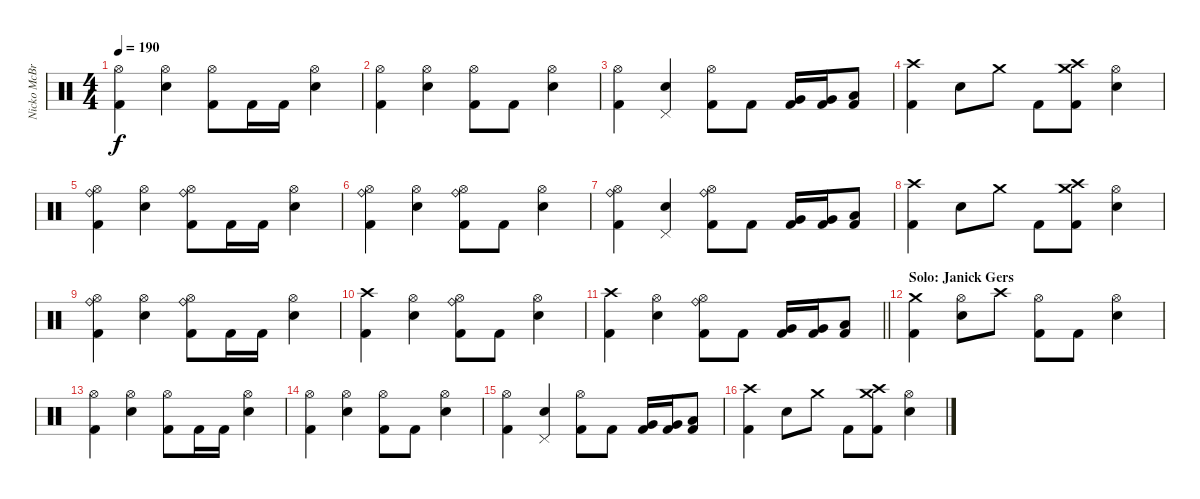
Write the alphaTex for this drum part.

\track ("Nicko McBrain" "Nicko McBr") {instrument percussion}
\staff {score}
\articulation defaults
\ts (4 4)
\tempo 190
\clef neutral
\ks c
("Hi-Hat (open)" "Kick (hit) 2").4{dy f} ("Hi-Hat (open)" "Electric Snare (hit)").4 ("Hi-Hat (open)" "Kick (hit) 2").8 "Kick (hit) 2".16 "Kick (hit) 2".16 ("Hi-Hat (open)" "Electric Snare (hit)").4 |
("Hi-Hat (open)" "Kick (hit) 2").4 ("Hi-Hat (open)" "Electric Snare (hit)").4 ("Hi-Hat (open)" "Kick (hit) 2").8 "Kick (hit) 2".8 ("Hi-Hat (open)" "Electric Snare (hit)").4 |
("Hi-Hat (open)" "Kick (hit) 2").4 ("Pedal Hi-Hat (hit)" "Electric Snare (hit)").4 ("Hi-Hat (open)" "Kick (hit) 2").8 "Kick (hit) 2".8 ("Very Low Tom (hit)" "Kick (hit) 2").16 ("Very Low Tom (hit)" "Kick (hit) 2").16 ("Low Floor Tom (hit)" "Kick (hit) 2").8 |
("Crash high (hit)" "Kick (hit) 2").4 "Electric Snare (hit)".8 "Crash medium (hit)".8 "Kick (hit) 2".8 ("Crash medium (hit)" "Crash high (hit)" "Kick (hit) 2").8 ("Hi-Hat (open)" "Electric Snare (hit)").4 |
("Hi-Hat (open)" "Ride (bell)" "Kick (hit) 2").4 ("Hi-Hat (open)" "Electric Snare (hit)").4 ("Hi-Hat (open)" "Ride (bell)" "Kick (hit) 2").8 "Kick (hit) 2".16 "Kick (hit) 2".16 ("Hi-Hat (open)" "Electric Snare (hit)").4 |
("Hi-Hat (open)" "Ride (bell)" "Kick (hit) 2").4 ("Hi-Hat (open)" "Electric Snare (hit)").4 ("Hi-Hat (open)" "Ride (bell)" "Kick (hit) 2").8 "Kick (hit) 2".8 ("Hi-Hat (open)" "Electric Snare (hit)").4 |
("Hi-Hat (open)" "Ride (bell)" "Kick (hit) 2").4 ("Pedal Hi-Hat (hit)" "Electric Snare (hit)").4 ("Hi-Hat (open)" "Ride (bell)" "Kick (hit) 2").8 "Kick (hit) 2".8 ("Very Low Tom (hit)" "Kick (hit) 2").16 ("Very Low Tom (hit)" "Kick (hit) 2").16 ("Low Floor Tom (hit)" "Kick (hit) 2").8 |
("Crash high (hit)" "Kick (hit) 2").4 "Electric Snare (hit)".8 "Crash medium (hit)".8 "Kick (hit) 2".8 ("Crash medium (hit)" "Crash high (hit)" "Kick (hit) 2").8 ("Hi-Hat (open)" "Electric Snare (hit)").4 |
("Hi-Hat (open)" "Ride (bell)" "Kick (hit) 2").4 ("Hi-Hat (open)" "Electric Snare (hit)").4 ("Hi-Hat (open)" "Ride (bell)" "Kick (hit) 2").8 "Kick (hit) 2".16 "Kick (hit) 2".16 ("Hi-Hat (open)" "Electric Snare (hit)").4 |
("Crash high (hit)" "Kick (hit) 2").4 ("Hi-Hat (open)" "Electric Snare (hit)").4 ("Hi-Hat (open)" "Ride (bell)" "Kick (hit) 2").8 "Kick (hit) 2".8 ("Hi-Hat (open)" "Electric Snare (hit)").4 |
\barLineRight lightlight
("Crash high (hit)" "Kick (hit) 2").4 ("Hi-Hat (open)" "Electric Snare (hit)").4 ("Hi-Hat (open)" "Ride (bell)" "Kick (hit) 2").8 "Kick (hit) 2".8 ("Very Low Tom (hit)" "Kick (hit) 2").16 ("Very Low Tom (hit)" "Kick (hit) 2").16 ("Low Floor Tom (hit)" "Kick (hit) 2").8 |
\section ("" "Solo: Janick Gers")
("Crash medium (hit)" "Kick (hit) 2").4 ("Hi-Hat (open)" "Electric Snare (hit)").8 "Crash high (hit)".8 ("Hi-Hat (open)" "Kick (hit) 2").8 "Kick (hit) 2".8 ("Hi-Hat (open)" "Electric Snare (hit)").4 |
("Hi-Hat (open)" "Kick (hit) 2").4 ("Hi-Hat (open)" "Electric Snare (hit)").4 ("Hi-Hat (open)" "Kick (hit) 2").8 "Kick (hit) 2".16 "Kick (hit) 2".16 ("Hi-Hat (open)" "Electric Snare (hit)").4 |
("Hi-Hat (open)" "Kick (hit) 2").4 ("Hi-Hat (open)" "Electric Snare (hit)").4 ("Hi-Hat (open)" "Kick (hit) 2").8 "Kick (hit) 2".8 ("Hi-Hat (open)" "Electric Snare (hit)").4 |
("Hi-Hat (open)" "Kick (hit) 2").4 ("Pedal Hi-Hat (hit)" "Electric Snare (hit)").4 ("Hi-Hat (open)" "Kick (hit) 2").8 "Kick (hit) 2".8 ("Very Low Tom (hit)" "Kick (hit) 2").16 ("Very Low Tom (hit)" "Kick (hit) 2").16 ("Low Floor Tom (hit)" "Kick (hit) 2").8 |
("Crash high (hit)" "Kick (hit) 2").4 "Electric Snare (hit)".8 "Crash medium (hit)".8 "Kick (hit) 2".8 ("Crash medium (hit)" "Crash high (hit)" "Kick (hit) 2").8 ("Hi-Hat (open)" "Electric Snare (hit)").4
